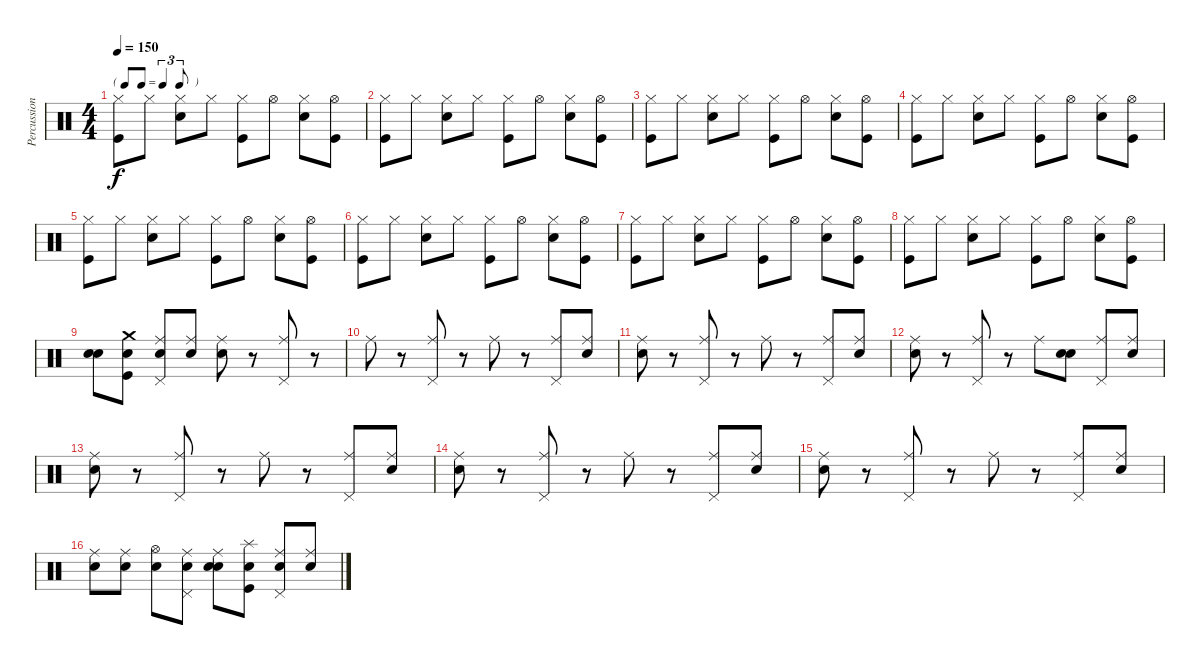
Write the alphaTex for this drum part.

\track ("Percussions" "Percussion") {instrument percussion}
\staff {score}
\articulation defaults
\ts (4 4)
\tf triplet8th
\tempo 150
\clef neutral
\ks c
("Kick (hit)" "Hi-Hat (closed)").8{dy f} "Hi-Hat (closed)".8 ("Snare (hit) 2" "Hi-Hat (closed)").8 "Hi-Hat (closed)".8 ("Kick (hit)" "Hi-Hat (closed)").8 "Hi-Hat (open)".8 ("Snare (hit) 2" "Hi-Hat (closed)").8 ("Kick (hit)" "Hi-Hat (open)").8 |
("Kick (hit)" "Hi-Hat (closed)").8 "Hi-Hat (closed)".8 ("Snare (hit) 2" "Hi-Hat (closed)").8 "Hi-Hat (closed)".8 ("Kick (hit)" "Hi-Hat (closed)").8 "Hi-Hat (open)".8 ("Snare (hit) 2" "Hi-Hat (closed)").8 ("Kick (hit)" "Hi-Hat (open)").8 |
("Kick (hit)" "Hi-Hat (closed)").8 "Hi-Hat (closed)".8 ("Snare (hit) 2" "Hi-Hat (closed)").8 "Hi-Hat (closed)".8 ("Kick (hit)" "Hi-Hat (closed)").8 "Hi-Hat (open)".8 ("Snare (hit) 2" "Hi-Hat (closed)").8 ("Kick (hit)" "Hi-Hat (open)").8 |
("Kick (hit)" "Hi-Hat (closed)").8 "Hi-Hat (closed)".8 ("Snare (hit) 2" "Hi-Hat (closed)").8 "Hi-Hat (closed)".8 ("Kick (hit)" "Hi-Hat (closed)").8 "Hi-Hat (open)".8 ("Snare (hit) 2" "Hi-Hat (closed)").8 ("Kick (hit)" "Hi-Hat (open)").8 |
("Kick (hit)" "Hi-Hat (closed)").8 "Hi-Hat (closed)".8 ("Snare (hit) 2" "Hi-Hat (closed)").8 "Hi-Hat (closed)".8 ("Kick (hit)" "Hi-Hat (closed)").8 "Hi-Hat (open)".8 ("Snare (hit) 2" "Hi-Hat (closed)").8 ("Kick (hit)" "Hi-Hat (open)").8 |
("Kick (hit)" "Hi-Hat (closed)").8 "Hi-Hat (closed)".8 ("Snare (hit) 2" "Hi-Hat (closed)").8 "Hi-Hat (closed)".8 ("Kick (hit)" "Hi-Hat (closed)").8 "Hi-Hat (open)".8 ("Snare (hit) 2" "Hi-Hat (closed)").8 ("Kick (hit)" "Hi-Hat (open)").8 |
("Kick (hit)" "Hi-Hat (closed)").8 "Hi-Hat (closed)".8 ("Snare (hit) 2" "Hi-Hat (closed)").8 "Hi-Hat (closed)".8 ("Kick (hit)" "Hi-Hat (closed)").8 "Hi-Hat (open)".8 ("Snare (hit) 2" "Hi-Hat (closed)").8 ("Kick (hit)" "Hi-Hat (open)").8 |
("Kick (hit)" "Hi-Hat (closed)").8 "Hi-Hat (closed)".8 ("Snare (hit) 2" "Hi-Hat (closed)").8 "Hi-Hat (closed)".8 ("Kick (hit)" "Hi-Hat (closed)").8 "Hi-Hat (open)".8 ("Snare (hit) 2" "Hi-Hat (closed)").8 ("Kick (hit)" "Hi-Hat (open)").8 |
("Snare (hit)" "Snare (hit) 2").8 ("Snare (hit)" "Crash medium (hit)" "Kick (hit)").8 ("Snare (hit)" "Ride (middle)" "Pedal Hi-Hat (hit)").8 ("Snare (hit)" "Ride (middle)").8 ("Snare (hit)" "Ride (middle)").8 r.8 ("Pedal Hi-Hat (hit)" "Ride (middle)").8 r.8 |
"Ride (middle)".8 r.8 ("Ride (middle)" "Pedal Hi-Hat (hit)").8 r.8 "Ride (middle)".8 r.8 ("Pedal Hi-Hat (hit)" "Ride (middle)").8 ("Snare (hit)" "Ride (middle)").8 |
("Snare (hit)" "Ride (middle)").8 r.8 ("Pedal Hi-Hat (hit)" "Ride (middle)").8 r.8 "Ride (middle)".8 r.8 ("Pedal Hi-Hat (hit)" "Ride (middle)").8 ("Snare (hit)" "Ride (middle)").8 |
("Snare (hit)" "Ride (middle)").8 r.8 ("Pedal Hi-Hat (hit)" "Ride (middle)").8 r.8 "Ride (middle)".8 ("Snare (hit)" "Hand Clap (hit)").8 ("Pedal Hi-Hat (hit)" "Ride (middle)").8 ("Snare (hit)" "Ride (middle)").8 |
("Snare (hit)" "Ride (middle)").8 r.8 ("Pedal Hi-Hat (hit)" "Ride (middle)").8 r.8 "Ride (middle)".8 r.8 ("Pedal Hi-Hat (hit)" "Ride (middle)").8 ("Snare (hit)" "Ride (middle)").8 |
("Snare (hit)" "Ride (middle)").8 r.8 ("Pedal Hi-Hat (hit)" "Ride (middle)").8 r.8 "Ride (middle)".8 r.8 ("Pedal Hi-Hat (hit)" "Ride (middle)").8 ("Snare (hit)" "Ride (middle)").8 |
("Snare (hit)" "Ride (middle)").8 r.8 ("Ride (middle)" "Pedal Hi-Hat (hit)").8 r.8 "Ride (middle)".8 r.8 ("Ride (middle)" "Pedal Hi-Hat (hit)").8 ("Snare (hit)" "Ride (middle)").8 |
("Snare (hit)" "Ride (middle)").8 ("Snare (hit)" "Ride (middle)").8 ("Snare (hit)" "Hi-Hat (open)").8 ("Snare (hit)" "Ride (middle)" "Pedal Hi-Hat (hit)").8 ("Snare (hit)" "Hand Clap (hit)" "Ride (middle)").8 ("Snare (hit)" "Kick (hit)" "Splash (hit)").8 ("Snare (hit)" "Ride (middle)" "Pedal Hi-Hat (hit)").8 ("Snare (hit)" "Ride (middle)").8
